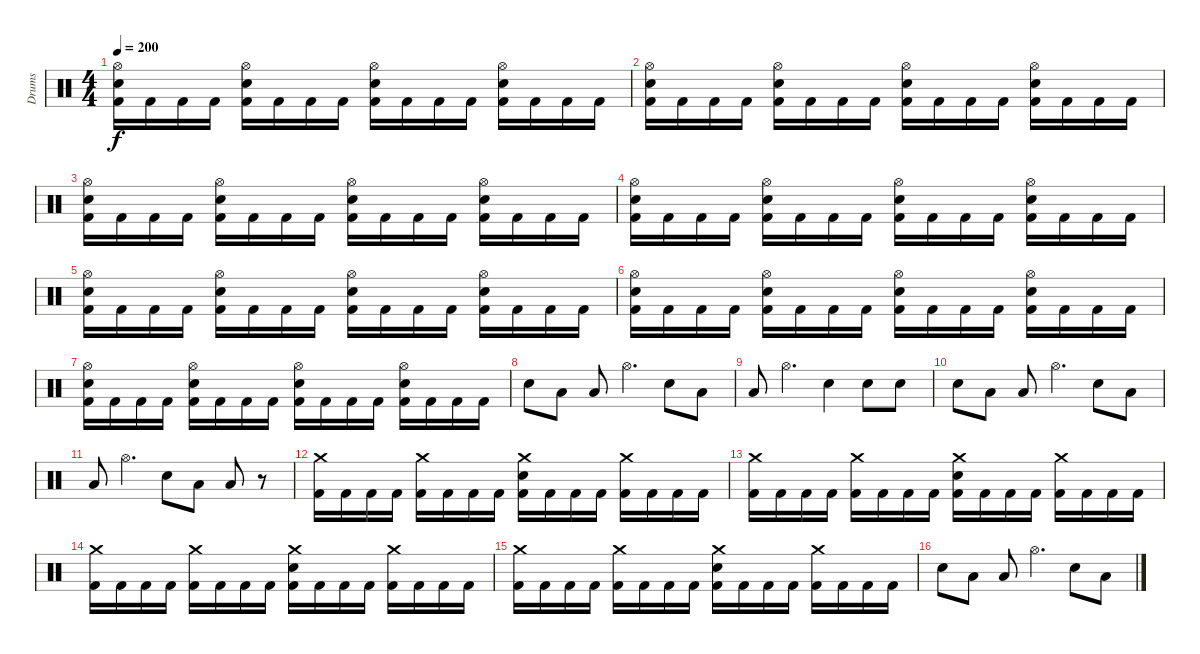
\track ("Drums" "Drums") {instrument percussion}
\staff {score}
\articulation defaults
\ts (4 4)
\tempo 200
\clef neutral
\ks c
("Hi-Hat (open)" "Snare (hit) 2" "Kick (hit) 2").16{dy f} "Kick (hit) 2".16 "Kick (hit) 2".16 "Kick (hit) 2".16 ("Hi-Hat (open)" "Snare (hit) 2" "Kick (hit) 2").16 "Kick (hit) 2".16 "Kick (hit) 2".16 "Kick (hit) 2".16 ("Hi-Hat (open)" "Snare (hit) 2" "Kick (hit) 2").16 "Kick (hit) 2".16 "Kick (hit) 2".16 "Kick (hit) 2".16 ("Hi-Hat (open)" "Snare (hit) 2" "Kick (hit) 2").16 "Kick (hit) 2".16 "Kick (hit) 2".16 "Kick (hit) 2".16 |
("Hi-Hat (open)" "Snare (hit) 2" "Kick (hit) 2").16 "Kick (hit) 2".16 "Kick (hit) 2".16 "Kick (hit) 2".16 ("Hi-Hat (open)" "Snare (hit) 2" "Kick (hit) 2").16 "Kick (hit) 2".16 "Kick (hit) 2".16 "Kick (hit) 2".16 ("Hi-Hat (open)" "Snare (hit) 2" "Kick (hit) 2").16 "Kick (hit) 2".16 "Kick (hit) 2".16 "Kick (hit) 2".16 ("Hi-Hat (open)" "Snare (hit) 2" "Kick (hit) 2").16 "Kick (hit) 2".16 "Kick (hit) 2".16 "Kick (hit) 2".16 |
("Hi-Hat (open)" "Snare (hit) 2" "Kick (hit) 2").16 "Kick (hit) 2".16 "Kick (hit) 2".16 "Kick (hit) 2".16 ("Hi-Hat (open)" "Snare (hit) 2" "Kick (hit) 2").16 "Kick (hit) 2".16 "Kick (hit) 2".16 "Kick (hit) 2".16 ("Hi-Hat (open)" "Snare (hit) 2" "Kick (hit) 2").16 "Kick (hit) 2".16 "Kick (hit) 2".16 "Kick (hit) 2".16 ("Hi-Hat (open)" "Snare (hit) 2" "Kick (hit) 2").16 "Kick (hit) 2".16 "Kick (hit) 2".16 "Kick (hit) 2".16 |
("Hi-Hat (open)" "Snare (hit) 2" "Kick (hit) 2").16 "Kick (hit) 2".16 "Kick (hit) 2".16 "Kick (hit) 2".16 ("Hi-Hat (open)" "Snare (hit) 2" "Kick (hit) 2").16 "Kick (hit) 2".16 "Kick (hit) 2".16 "Kick (hit) 2".16 ("Hi-Hat (open)" "Snare (hit) 2" "Kick (hit) 2").16 "Kick (hit) 2".16 "Kick (hit) 2".16 "Kick (hit) 2".16 ("Hi-Hat (open)" "Snare (hit) 2" "Kick (hit) 2").16 "Kick (hit) 2".16 "Kick (hit) 2".16 "Kick (hit) 2".16 |
("Hi-Hat (open)" "Snare (hit) 2" "Kick (hit) 2").16 "Kick (hit) 2".16 "Kick (hit) 2".16 "Kick (hit) 2".16 ("Hi-Hat (open)" "Snare (hit) 2" "Kick (hit) 2").16 "Kick (hit) 2".16 "Kick (hit) 2".16 "Kick (hit) 2".16 ("Hi-Hat (open)" "Snare (hit) 2" "Kick (hit) 2").16 "Kick (hit) 2".16 "Kick (hit) 2".16 "Kick (hit) 2".16 ("Hi-Hat (open)" "Snare (hit) 2" "Kick (hit) 2").16 "Kick (hit) 2".16 "Kick (hit) 2".16 "Kick (hit) 2".16 |
("Hi-Hat (open)" "Snare (hit) 2" "Kick (hit) 2").16 "Kick (hit) 2".16 "Kick (hit) 2".16 "Kick (hit) 2".16 ("Hi-Hat (open)" "Snare (hit) 2" "Kick (hit) 2").16 "Kick (hit) 2".16 "Kick (hit) 2".16 "Kick (hit) 2".16 ("Hi-Hat (open)" "Snare (hit) 2" "Kick (hit) 2").16 "Kick (hit) 2".16 "Kick (hit) 2".16 "Kick (hit) 2".16 ("Hi-Hat (open)" "Snare (hit) 2" "Kick (hit) 2").16 "Kick (hit) 2".16 "Kick (hit) 2".16 "Kick (hit) 2".16 |
("Hi-Hat (open)" "Snare (hit) 2" "Kick (hit) 2").16 "Kick (hit) 2".16 "Kick (hit) 2".16 "Kick (hit) 2".16 ("Hi-Hat (open)" "Snare (hit) 2" "Kick (hit) 2").16 "Kick (hit) 2".16 "Kick (hit) 2".16 "Kick (hit) 2".16 ("Hi-Hat (open)" "Snare (hit) 2" "Kick (hit) 2").16 "Kick (hit) 2".16 "Kick (hit) 2".16 "Kick (hit) 2".16 ("Hi-Hat (open)" "Snare (hit) 2" "Kick (hit) 2").16 "Kick (hit) 2".16 "Kick (hit) 2".16 "Kick (hit) 2".16 |
"Snare (hit) 2".8 "Low Tom (hit)".8 "Low Tom (hit)".8 "Hi-Hat (open)".4{d} "Snare (hit) 2".8 "Low Tom (hit)".8 |
"Low Tom (hit)".8 "Hi-Hat (open)".4{d} "Snare (hit) 2".4 "Snare (hit) 2".8 "Snare (hit) 2".8 |
"Snare (hit) 2".8 "Low Tom (hit)".8 "Low Tom (hit)".8 "Hi-Hat (open)".4{d} "Snare (hit) 2".8 "Low Tom (hit)".8 |
"Low Tom (hit)".8 "Hi-Hat (open)".4{d} "Snare (hit) 2".8 "Low Tom (hit)".8 "Low Tom (hit)".8 r.8 |
("Crash medium (hit)" "Kick (hit) 2").16 "Kick (hit) 2".16 "Kick (hit) 2".16 "Kick (hit) 2".16 ("Crash medium (hit)" "Kick (hit) 2").16 "Kick (hit) 2".16 "Kick (hit) 2".16 "Kick (hit) 2".16 ("Crash medium (hit)" "Snare (hit) 2" "Kick (hit) 2").16 "Kick (hit) 2".16 "Kick (hit) 2".16 "Kick (hit) 2".16 ("Crash medium (hit)" "Kick (hit) 2").16 "Kick (hit) 2".16 "Kick (hit) 2".16 "Kick (hit) 2".16 |
("Crash medium (hit)" "Kick (hit) 2").16 "Kick (hit) 2".16 "Kick (hit) 2".16 "Kick (hit) 2".16 ("Crash medium (hit)" "Kick (hit) 2").16 "Kick (hit) 2".16 "Kick (hit) 2".16 "Kick (hit) 2".16 ("Crash medium (hit)" "Snare (hit) 2" "Kick (hit) 2").16 "Kick (hit) 2".16 "Kick (hit) 2".16 "Kick (hit) 2".16 ("Crash medium (hit)" "Kick (hit) 2").16 "Kick (hit) 2".16 "Kick (hit) 2".16 "Kick (hit) 2".16 |
("Crash medium (hit)" "Kick (hit) 2").16 "Kick (hit) 2".16 "Kick (hit) 2".16 "Kick (hit) 2".16 ("Crash medium (hit)" "Kick (hit) 2").16 "Kick (hit) 2".16 "Kick (hit) 2".16 "Kick (hit) 2".16 ("Crash medium (hit)" "Snare (hit) 2" "Kick (hit) 2").16 "Kick (hit) 2".16 "Kick (hit) 2".16 "Kick (hit) 2".16 ("Crash medium (hit)" "Kick (hit) 2").16 "Kick (hit) 2".16 "Kick (hit) 2".16 "Kick (hit) 2".16 |
("Crash medium (hit)" "Kick (hit) 2").16 "Kick (hit) 2".16 "Kick (hit) 2".16 "Kick (hit) 2".16 ("Crash medium (hit)" "Kick (hit) 2").16 "Kick (hit) 2".16 "Kick (hit) 2".16 "Kick (hit) 2".16 ("Crash medium (hit)" "Snare (hit) 2" "Kick (hit) 2").16 "Kick (hit) 2".16 "Kick (hit) 2".16 "Kick (hit) 2".16 ("Crash medium (hit)" "Kick (hit) 2").16 "Kick (hit) 2".16 "Kick (hit) 2".16 "Kick (hit) 2".16 |
"Snare (hit) 2".8 "Low Tom (hit)".8 "Low Tom (hit)".8 "Hi-Hat (open)".4{d} "Snare (hit) 2".8 "Low Tom (hit)".8
